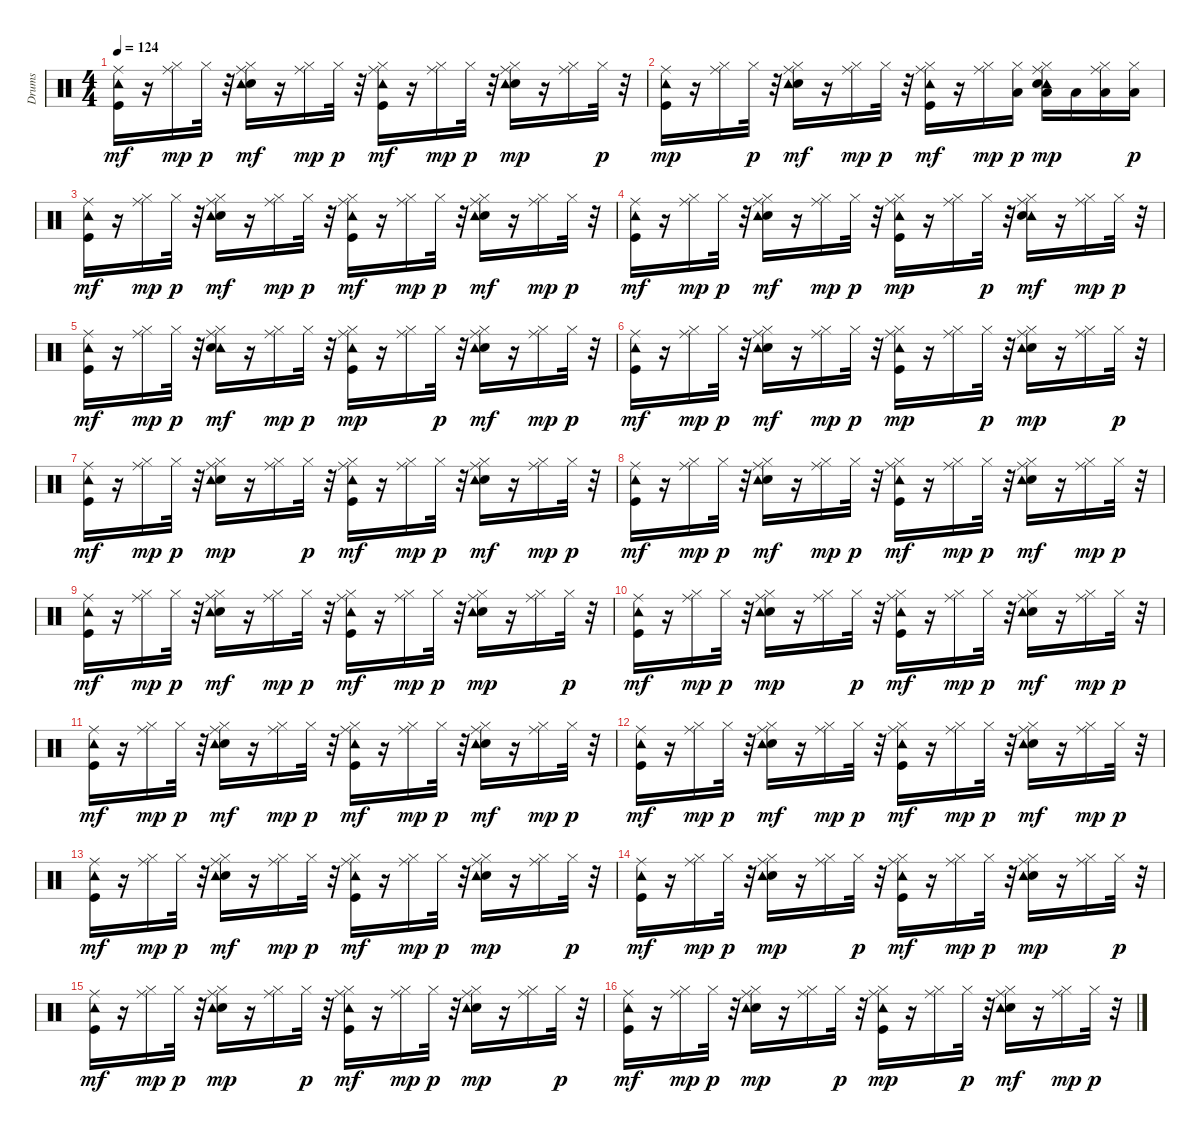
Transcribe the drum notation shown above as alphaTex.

\track ("Drums" "Drums") {instrument percussion}
\staff {score}
\articulation defaults
\ts (4 4)
\tempo 124
\clef neutral
\ks c
("Kick (hit)" "Ride (middle)" "Tambourine (hit)").16{dy mf} r.16 ("Ride (middle)" "Hi-Hat (closed)").16{dy mp} "Hi-Hat (closed)".32{dy p} r.32 ("Ride (middle)" "Snare (hit) 2" "Tambourine (hit)" "Hi-Hat (closed)").16{dy mf} r.16 ("Ride (middle)" "Hi-Hat (closed)").16{dy mp} "Hi-Hat (closed)".32{dy p} r.32 ("Hi-Hat (closed)" "Ride (middle)" "Kick (hit)" "Tambourine (hit)").16{dy mf} r.16 ("Ride (middle)" "Hi-Hat (closed)").16{dy mp} "Hi-Hat (closed)".32{dy p} r.32 ("Hi-Hat (closed)" "Snare (hit) 2" "Tambourine (hit)" "Ride (middle)").16{dy mp} r.16 ("Ride (middle)" "Hi-Hat (closed)").16 "Hi-Hat (closed)".32{dy p} r.32 |
("Kick (hit)" "Tambourine (hit)" "Ride (middle)").16{dy mp} r.16 ("Ride (middle)" "Hi-Hat (closed)").16 "Hi-Hat (closed)".32{dy p} r.32 ("Ride (middle)" "Snare (hit) 2" "Tambourine (hit)" "Hi-Hat (closed)").16{dy mf} r.16 ("Ride (middle)" "Hi-Hat (closed)").16{dy mp} "Hi-Hat (closed)".32{dy p} r.32 ("Hi-Hat (closed)" "Ride (middle)" "Kick (hit)" "Tambourine (hit)").16{dy mf} r.16 ("Ride (middle)" "Hi-Hat (closed)").16{dy mp} ("Low Tom (hit)" "Hi-Hat (closed)").16{dy p} ("Tambourine (hit)" "Hi-Hat (closed)" "Snare (hit) 2" "Low Tom (hit)" "Ride (middle)").16{dy mp} "Low Tom (hit)".16 ("Hi-Hat (closed)" "Low Tom (hit)" "Ride (middle)").16 ("Low Tom (hit)" "Hi-Hat (closed)").16{dy p} |
("Ride (middle)" "Tambourine (hit)" "Kick (hit)").16{dy mf} r.16 ("Ride (middle)" "Hi-Hat (closed)").16{dy mp} "Hi-Hat (closed)".32{dy p} r.32 ("Ride (middle)" "Hi-Hat (closed)" "Snare (hit) 2" "Tambourine (hit)").16{dy mf} r.16 ("Ride (middle)" "Hi-Hat (closed)").16{dy mp} "Hi-Hat (closed)".32{dy p} r.32 ("Ride (middle)" "Kick (hit)" "Tambourine (hit)" "Hi-Hat (closed)").16{dy mf} r.16 ("Ride (middle)" "Hi-Hat (closed)").16{dy mp} "Hi-Hat (closed)".32{dy p} r.32 ("Hi-Hat (closed)" "Ride (middle)" "Snare (hit) 2" "Tambourine (hit)").16{dy mf} r.16 ("Ride (middle)" "Hi-Hat (closed)").16{dy mp} "Hi-Hat (closed)".32{dy p} r.32 |
("Ride (middle)" "Tambourine (hit)" "Kick (hit)").16{dy mf} r.16 ("Ride (middle)" "Hi-Hat (closed)").16{dy mp} "Hi-Hat (closed)".32{dy p} r.32 ("Hi-Hat (closed)" "Ride (middle)" "Snare (hit) 2" "Tambourine (hit)").16{dy mf} r.16 ("Ride (middle)" "Hi-Hat (closed)").16{dy mp} "Hi-Hat (closed)".32{dy p} r.32 ("Hi-Hat (closed)" "Kick (hit)" "Tambourine (hit)" "Ride (middle)").16{dy mp} r.16 ("Ride (middle)" "Hi-Hat (closed)").16 "Hi-Hat (closed)".32{dy p} r.32 ("Tambourine (hit)" "Ride (middle)" "Snare (hit) 2" "Hi-Hat (closed)").16{dy mf} r.16 ("Ride (middle)" "Hi-Hat (closed)").16{dy mp} "Hi-Hat (closed)".32{dy p} r.32 |
("Ride (middle)" "Tambourine (hit)" "Kick (hit)").16{dy mf} r.16 ("Ride (middle)" "Hi-Hat (closed)").16{dy mp} "Hi-Hat (closed)".32{dy p} r.32 ("Tambourine (hit)" "Ride (middle)" "Snare (hit) 2" "Hi-Hat (closed)").16{dy mf} r.16 ("Ride (middle)" "Hi-Hat (closed)").16{dy mp} "Hi-Hat (closed)".32{dy p} r.32 ("Hi-Hat (closed)" "Kick (hit)" "Tambourine (hit)" "Ride (middle)").16{dy mp} r.16 ("Ride (middle)" "Hi-Hat (closed)").16 "Hi-Hat (closed)".32{dy p} r.32 ("Snare (hit) 2" "Ride (middle)" "Tambourine (hit)" "Hi-Hat (closed)").16{dy mf} r.16 ("Ride (middle)" "Hi-Hat (closed)").16{dy mp} "Hi-Hat (closed)".32{dy p} r.32 |
("Ride (middle)" "Tambourine (hit)" "Kick (hit)").16{dy mf} r.16 ("Ride (middle)" "Hi-Hat (closed)").16{dy mp} "Hi-Hat (closed)".32{dy p} r.32 ("Snare (hit) 2" "Ride (middle)" "Tambourine (hit)" "Hi-Hat (closed)").16{dy mf} r.16 ("Ride (middle)" "Hi-Hat (closed)").16{dy mp} "Hi-Hat (closed)".32{dy p} r.32 ("Hi-Hat (closed)" "Kick (hit)" "Tambourine (hit)" "Ride (middle)").16{dy mp} r.16 ("Ride (middle)" "Hi-Hat (closed)").16 "Hi-Hat (closed)".32{dy p} r.32 ("Hi-Hat (closed)" "Snare (hit) 2" "Tambourine (hit)" "Ride (middle)").16{dy mp} r.16 ("Ride (middle)" "Hi-Hat (closed)").16 "Hi-Hat (closed)".32{dy p} r.32 |
("Ride (middle)" "Tambourine (hit)" "Kick (hit)").16{dy mf} r.16 ("Ride (middle)" "Hi-Hat (closed)").16{dy mp} "Hi-Hat (closed)".32{dy p} r.32 ("Hi-Hat (closed)" "Snare (hit) 2" "Tambourine (hit)" "Ride (middle)").16{dy mp} r.16 ("Ride (middle)" "Hi-Hat (closed)").16 "Hi-Hat (closed)".32{dy p} r.32 ("Ride (middle)" "Kick (hit)" "Tambourine (hit)" "Hi-Hat (closed)").16{dy mf} r.16 ("Hi-Hat (closed)" "Ride (middle)").16{dy mp} "Hi-Hat (closed)".32{dy p} r.32 ("Ride (middle)" "Snare (hit) 2" "Tambourine (hit)" "Hi-Hat (closed)").16{dy mf} r.16 ("Ride (middle)" "Hi-Hat (closed)").16{dy mp} "Hi-Hat (closed)".32{dy p} r.32 |
("Ride (middle)" "Tambourine (hit)" "Kick (hit)").16{dy mf} r.16 ("Hi-Hat (closed)" "Ride (middle)").16{dy mp} "Hi-Hat (closed)".32{dy p} r.32 ("Ride (middle)" "Snare (hit) 2" "Tambourine (hit)" "Hi-Hat (closed)").16{dy mf} r.16 ("Ride (middle)" "Hi-Hat (closed)").16{dy mp} "Hi-Hat (closed)".32{dy p} r.32 ("Ride (middle)" "Kick (hit)" "Tambourine (hit)" "Hi-Hat (closed)").16{dy mf} r.16 ("Hi-Hat (closed)" "Ride (middle)").16{dy mp} "Hi-Hat (closed)".32{dy p} r.32 ("Ride (middle)" "Snare (hit) 2" "Tambourine (hit)" "Hi-Hat (closed)").16{dy mf} r.16 ("Ride (middle)" "Hi-Hat (closed)").16{dy mp} "Hi-Hat (closed)".32{dy p} r.32 |
("Ride (middle)" "Tambourine (hit)" "Kick (hit)").16{dy mf} r.16 ("Hi-Hat (closed)" "Ride (middle)").16{dy mp} "Hi-Hat (closed)".32{dy p} r.32 ("Ride (middle)" "Snare (hit) 2" "Tambourine (hit)" "Hi-Hat (closed)").16{dy mf} r.16 ("Ride (middle)" "Hi-Hat (closed)").16{dy mp} "Hi-Hat (closed)".32{dy p} r.32 ("Ride (middle)" "Hi-Hat (closed)" "Tambourine (hit)" "Kick (hit)").16{dy mf} r.16 ("Ride (middle)" "Hi-Hat (closed)").16{dy mp} "Hi-Hat (closed)".32{dy p} r.32 ("Hi-Hat (closed)" "Snare (hit) 2" "Tambourine (hit)" "Ride (middle)").16{dy mp} r.16 ("Ride (middle)" "Hi-Hat (closed)").16 "Hi-Hat (closed)".32{dy p} r.32 |
("Ride (middle)" "Tambourine (hit)" "Kick (hit)").16{dy mf} r.16 ("Ride (middle)" "Hi-Hat (closed)").16{dy mp} "Hi-Hat (closed)".32{dy p} r.32 ("Hi-Hat (closed)" "Snare (hit) 2" "Tambourine (hit)" "Ride (middle)").16{dy mp} r.16 ("Ride (middle)" "Hi-Hat (closed)").16 "Hi-Hat (closed)".32{dy p} r.32 ("Ride (middle)" "Kick (hit)" "Tambourine (hit)" "Hi-Hat (closed)").16{dy mf} r.16 ("Hi-Hat (closed)" "Ride (middle)").16{dy mp} "Hi-Hat (closed)".32{dy p} r.32 ("Ride (middle)" "Snare (hit) 2" "Tambourine (hit)" "Hi-Hat (closed)").16{dy mf} r.16 ("Ride (middle)" "Hi-Hat (closed)").16{dy mp} "Hi-Hat (closed)".32{dy p} r.32 |
("Ride (middle)" "Tambourine (hit)" "Kick (hit)").16{dy mf} r.16 ("Hi-Hat (closed)" "Ride (middle)").16{dy mp} "Hi-Hat (closed)".32{dy p} r.32 ("Ride (middle)" "Snare (hit) 2" "Tambourine (hit)" "Hi-Hat (closed)").16{dy mf} r.16 ("Ride (middle)" "Hi-Hat (closed)").16{dy mp} "Hi-Hat (closed)".32{dy p} r.32 ("Ride (middle)" "Kick (hit)" "Tambourine (hit)" "Hi-Hat (closed)").16{dy mf} r.16 ("Hi-Hat (closed)" "Ride (middle)").16{dy mp} "Hi-Hat (closed)".32{dy p} r.32 ("Ride (middle)" "Snare (hit) 2" "Tambourine (hit)" "Hi-Hat (closed)").16{dy mf} r.16 ("Ride (middle)" "Hi-Hat (closed)").16{dy mp} "Hi-Hat (closed)".32{dy p} r.32 |
("Ride (middle)" "Tambourine (hit)" "Kick (hit)").16{dy mf} r.16 ("Hi-Hat (closed)" "Ride (middle)").16{dy mp} "Hi-Hat (closed)".32{dy p} r.32 ("Ride (middle)" "Snare (hit) 2" "Tambourine (hit)" "Hi-Hat (closed)").16{dy mf} r.16 ("Ride (middle)" "Hi-Hat (closed)").16{dy mp} "Hi-Hat (closed)".32{dy p} r.32 ("Ride (middle)" "Hi-Hat (closed)" "Kick (hit)" "Tambourine (hit)").16{dy mf} r.16 ("Ride (middle)" "Hi-Hat (closed)").16{dy mp} "Hi-Hat (closed)".32{dy p} r.32 ("Ride (middle)" "Snare (hit) 2" "Tambourine (hit)" "Hi-Hat (closed)").16{dy mf} r.16 ("Ride (middle)" "Hi-Hat (closed)").16{dy mp} "Hi-Hat (closed)".32{dy p} r.32 |
("Kick (hit)" "Ride (middle)" "Tambourine (hit)").16{dy mf} r.16 ("Ride (middle)" "Hi-Hat (closed)").16{dy mp} "Hi-Hat (closed)".32{dy p} r.32 ("Ride (middle)" "Snare (hit) 2" "Tambourine (hit)" "Hi-Hat (closed)").16{dy mf} r.16 ("Ride (middle)" "Hi-Hat (closed)").16{dy mp} "Hi-Hat (closed)".32{dy p} r.32 ("Hi-Hat (closed)" "Ride (middle)" "Kick (hit)" "Tambourine (hit)").16{dy mf} r.16 ("Ride (middle)" "Hi-Hat (closed)").16{dy mp} "Hi-Hat (closed)".32{dy p} r.32 ("Hi-Hat (closed)" "Snare (hit) 2" "Tambourine (hit)" "Ride (middle)").16{dy mp} r.16 ("Ride (middle)" "Hi-Hat (closed)").16 "Hi-Hat (closed)".32{dy p} r.32 |
("Kick (hit)" "Ride (middle)" "Tambourine (hit)").16{dy mf} r.16 ("Ride (middle)" "Hi-Hat (closed)").16{dy mp} "Hi-Hat (closed)".32{dy p} r.32 ("Hi-Hat (closed)" "Snare (hit) 2" "Tambourine (hit)" "Ride (middle)").16{dy mp} r.16 ("Ride (middle)" "Hi-Hat (closed)").16 "Hi-Hat (closed)".32{dy p} r.32 ("Tambourine (hit)" "Ride (middle)" "Kick (hit)" "Hi-Hat (closed)").16{dy mf} r.16 ("Ride (middle)" "Hi-Hat (closed)").16{dy mp} "Hi-Hat (closed)".32{dy p} r.32 ("Hi-Hat (closed)" "Snare (hit) 2" "Tambourine (hit)" "Ride (middle)").16{dy mp} r.16 ("Ride (middle)" "Hi-Hat (closed)").16 "Hi-Hat (closed)".32{dy p} r.32 |
("Tambourine (hit)" "Ride (middle)" "Kick (hit)").16{dy mf} r.16 ("Ride (middle)" "Hi-Hat (closed)").16{dy mp} "Hi-Hat (closed)".32{dy p} r.32 ("Hi-Hat (closed)" "Snare (hit) 2" "Tambourine (hit)" "Ride (middle)").16{dy mp} r.16 ("Ride (middle)" "Hi-Hat (closed)").16 "Hi-Hat (closed)".32{dy p} r.32 ("Kick (hit)" "Ride (middle)" "Tambourine (hit)" "Hi-Hat (closed)").16{dy mf} r.16 ("Ride (middle)" "Hi-Hat (closed)").16{dy mp} "Hi-Hat (closed)".32{dy p} r.32 ("Hi-Hat (closed)" "Snare (hit) 2" "Tambourine (hit)" "Ride (middle)").16{dy mp} r.16 ("Ride (middle)" "Hi-Hat (closed)").16 "Hi-Hat (closed)".32{dy p} r.32 |
("Ride (middle)" "Tambourine (hit)" "Kick (hit)").16{dy mf} r.16 ("Ride (middle)" "Hi-Hat (closed)").16{dy mp} "Hi-Hat (closed)".32{dy p} r.32 ("Hi-Hat (closed)" "Snare (hit) 2" "Tambourine (hit)" "Ride (middle)").16{dy mp} r.16 ("Ride (middle)" "Hi-Hat (closed)").16 "Hi-Hat (closed)".32{dy p} r.32 ("Hi-Hat (closed)" "Kick (hit)" "Tambourine (hit)" "Ride (middle)").16{dy mp} r.16 ("Ride (middle)" "Hi-Hat (closed)").16 "Hi-Hat (closed)".32{dy p} r.32 ("Ride (middle)" "Snare (hit) 2" "Tambourine (hit)" "Hi-Hat (closed)").16{dy mf} r.16 ("Hi-Hat (closed)" "Ride (middle)").16{dy mp} "Hi-Hat (closed)".32{dy p} r.32
